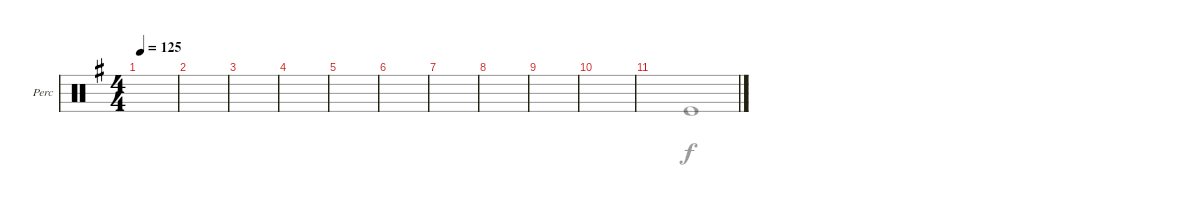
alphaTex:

\defaultSystemsLayout 4
\bracketExtendMode groupsimilarinstruments
\firstSystemTrackNameOrientation horizontal
\otherSystemsTrackNameOrientation horizontal
\track ("Percussion" "Perc") {instrument percussion}
\staff {score}
\articulation defaults
\voice
\ts (4 4)
\scale
0.453986
\tempo 125
\accidentals auto
\clef neutral
\ottava regular
\simile none
\scale
0.333333
\ks eminor
|
\scale
0.465875
\scale
0.333333 |
\scale
0.495931
\scale
0.333333 |
\scale
0.50443
\scale
0.333333 |
\scale
0.482479
\scale
0.333333 |
\scale
0.468641
\scale
0.333333 |
\scale
0.388995
\scale
0.333333 |
\scale
0.374024
\scale
0.333333 |
\scale
0.456009
\scale
0.333333 |
\scale
0.323001
\scale
0.333333 |
\scale
0.221266
\scale
0.333333
\voice
\clef neutral
\ottava regular
\simile none
\scale
0.333333
\ks eminor
|
\scale
0.333333 |
\scale
0.333333 |
\scale
0.333333 |
\scale
0.333333 |
\scale
0.333333 |
\scale
0.333333 |
\scale
0.333333 |
\scale
0.333333 |
\scale
0.333333 |
\scale
0.333333 "Kick (hit)".1{fermata (medium 0.76)}
